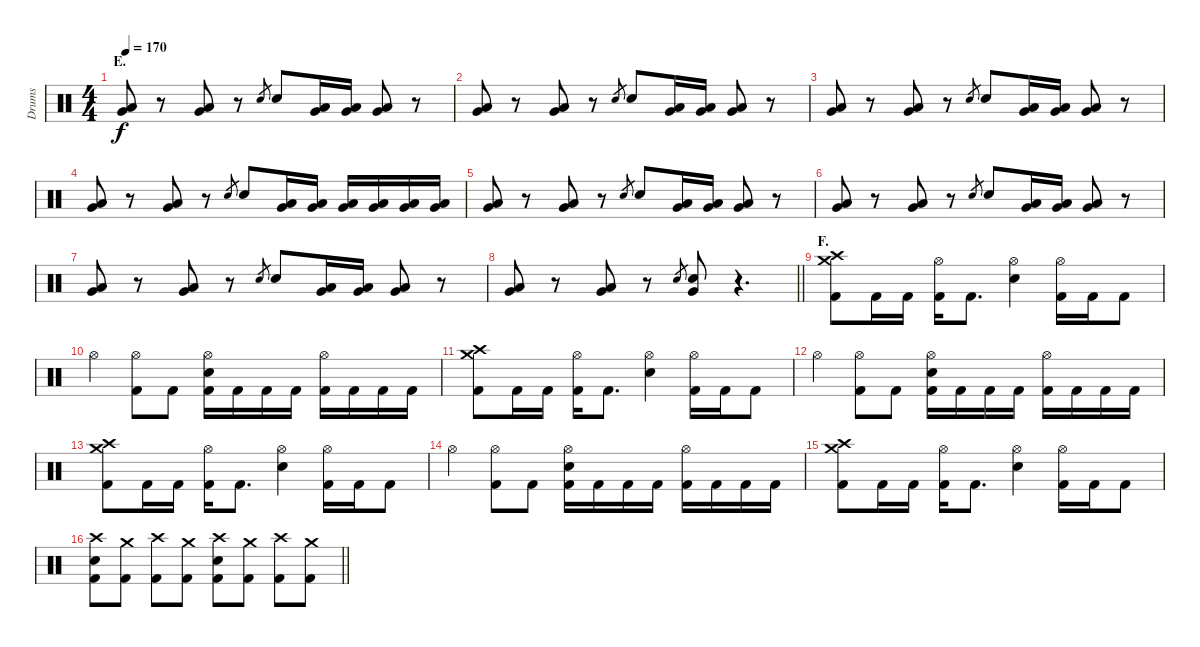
\track ("Drums" "Drums") {instrument percussion}
\staff {score}
\articulation defaults
\ts (4 4)
\section ("" "E.")
\tempo 170
\clef neutral
\ks c
("Very Low Tom (hit)" "Low Floor Tom (hit)").8{bu 120 dy f} r.8 ("Very Low Tom (hit)" "Low Floor Tom (hit)").8{bu 120} r.8 "Electric Snare (hit)".8{gr} "Electric Snare (hit)".8 ("Low Tom (hit)" "Very Low Tom (hit)").16 ("Low Tom (hit)" "Very Low Tom (hit)").16 ("Very Low Tom (hit)" "Low Floor Tom (hit)").8{bu 120} r.8 |
("Very Low Tom (hit)" "Low Floor Tom (hit)").8{bu 120} r.8 ("Very Low Tom (hit)" "Low Floor Tom (hit)").8{bu 120} r.8 "Electric Snare (hit)".8{gr} "Electric Snare (hit)".8 ("Low Tom (hit)" "Very Low Tom (hit)").16 ("Low Tom (hit)" "Very Low Tom (hit)").16 ("Very Low Tom (hit)" "Low Floor Tom (hit)").8{bu 120} r.8 |
("Very Low Tom (hit)" "Low Floor Tom (hit)").8{bu 120} r.8 ("Very Low Tom (hit)" "Low Floor Tom (hit)").8{bu 120} r.8 "Electric Snare (hit)".8{gr} "Electric Snare (hit)".8 ("Low Tom (hit)" "Very Low Tom (hit)").16 ("Low Tom (hit)" "Very Low Tom (hit)").16 ("Very Low Tom (hit)" "Low Floor Tom (hit)").8{bu 120} r.8 |
("Very Low Tom (hit)" "Low Floor Tom (hit)").8{bu 120} r.8 ("Very Low Tom (hit)" "Low Floor Tom (hit)").8{bu 120} r.8 "Electric Snare (hit)".8{gr} "Electric Snare (hit)".8 ("Low Tom (hit)" "Very Low Tom (hit)").16 ("Low Tom (hit)" "Very Low Tom (hit)").16 ("Low Tom (hit)" "Very Low Tom (hit)").16 ("Low Tom (hit)" "Very Low Tom (hit)").16 ("Low Tom (hit)" "Very Low Tom (hit)").16 ("Low Tom (hit)" "Very Low Tom (hit)").16 |
("Very Low Tom (hit)" "Low Floor Tom (hit)").8{bu 120} r.8 ("Very Low Tom (hit)" "Low Floor Tom (hit)").8{bu 120} r.8 "Electric Snare (hit)".8{gr} "Electric Snare (hit)".8 ("Low Tom (hit)" "Very Low Tom (hit)").16 ("Low Tom (hit)" "Very Low Tom (hit)").16 ("Very Low Tom (hit)" "Low Floor Tom (hit)").8{bu 120} r.8 |
("Very Low Tom (hit)" "Low Floor Tom (hit)").8{bu 120} r.8 ("Very Low Tom (hit)" "Low Floor Tom (hit)").8{bu 120} r.8 "Electric Snare (hit)".8{gr} "Electric Snare (hit)".8 ("Low Tom (hit)" "Very Low Tom (hit)").16 ("Low Tom (hit)" "Very Low Tom (hit)").16 ("Very Low Tom (hit)" "Low Floor Tom (hit)").8{bu 120} r.8 |
("Very Low Tom (hit)" "Low Floor Tom (hit)").8{bu 120} r.8 ("Very Low Tom (hit)" "Low Floor Tom (hit)").8{bu 120} r.8 "Electric Snare (hit)".8{gr} "Electric Snare (hit)".8 ("Low Tom (hit)" "Very Low Tom (hit)").16 ("Low Tom (hit)" "Very Low Tom (hit)").16 ("Very Low Tom (hit)" "Low Floor Tom (hit)").8{bu 120} r.8 |
\barLineRight lightlight
("Very Low Tom (hit)" "Low Floor Tom (hit)").8{bu 120} r.8 ("Very Low Tom (hit)" "Low Floor Tom (hit)").8{bu 120} r.8 "Electric Snare (hit)".8{gr} ("Electric Snare (hit)" "Very Low Tom (hit)").8 r.4{d} |
\section ("" "F.")
("Crash medium (hit)" "Crash high (hit)" "Kick (hit) 2").8 "Kick (hit) 2".16 "Kick (hit) 2".16 ("Hi-Hat (open)" "Kick (hit) 2").16 "Kick (hit) 2".8{d} ("Hi-Hat (open)" "Electric Snare (hit)").4 ("Hi-Hat (open)" "Kick (hit) 2").16 "Kick (hit) 2".16 "Kick (hit) 2".8 |
"Hi-Hat (open)".4 ("Hi-Hat (open)" "Kick (hit) 2").8 "Kick (hit) 2".8 ("Hi-Hat (open)" "Electric Snare (hit)" "Kick (hit) 2").16 "Kick (hit) 2".16 "Kick (hit) 2".16 "Kick (hit) 2".16 ("Hi-Hat (open)" "Kick (hit) 2").16 "Kick (hit) 2".16 "Kick (hit) 2".16 "Kick (hit) 2".16 |
("Crash medium (hit)" "Crash high (hit)" "Kick (hit) 2").8 "Kick (hit) 2".16 "Kick (hit) 2".16 ("Hi-Hat (open)" "Kick (hit) 2").16 "Kick (hit) 2".8{d} ("Hi-Hat (open)" "Electric Snare (hit)").4 ("Hi-Hat (open)" "Kick (hit) 2").16 "Kick (hit) 2".16 "Kick (hit) 2".8 |
"Hi-Hat (open)".4 ("Hi-Hat (open)" "Kick (hit) 2").8 "Kick (hit) 2".8 ("Hi-Hat (open)" "Electric Snare (hit)" "Kick (hit) 2").16 "Kick (hit) 2".16 "Kick (hit) 2".16 "Kick (hit) 2".16 ("Hi-Hat (open)" "Kick (hit) 2").16 "Kick (hit) 2".16 "Kick (hit) 2".16 "Kick (hit) 2".16 |
("Crash medium (hit)" "Crash high (hit)" "Kick (hit) 2").8 "Kick (hit) 2".16 "Kick (hit) 2".16 ("Hi-Hat (open)" "Kick (hit) 2").16 "Kick (hit) 2".8{d} ("Hi-Hat (open)" "Electric Snare (hit)").4 ("Hi-Hat (open)" "Kick (hit) 2").16 "Kick (hit) 2".16 "Kick (hit) 2".8 |
"Hi-Hat (open)".4 ("Hi-Hat (open)" "Kick (hit) 2").8 "Kick (hit) 2".8 ("Hi-Hat (open)" "Electric Snare (hit)" "Kick (hit) 2").16 "Kick (hit) 2".16 "Kick (hit) 2".16 "Kick (hit) 2".16 ("Hi-Hat (open)" "Kick (hit) 2").16 "Kick (hit) 2".16 "Kick (hit) 2".16 "Kick (hit) 2".16 |
("Crash medium (hit)" "Crash high (hit)" "Kick (hit) 2").8 "Kick (hit) 2".16 "Kick (hit) 2".16 ("Hi-Hat (open)" "Kick (hit) 2").16 "Kick (hit) 2".8{d} ("Hi-Hat (open)" "Electric Snare (hit)").4 ("Hi-Hat (open)" "Kick (hit) 2").16 "Kick (hit) 2".16 "Kick (hit) 2".8 |
\barLineRight lightlight
("Crash high (hit)" "Electric Snare (hit)" "Kick (hit) 2").8 ("Crash medium (hit)" "Kick (hit) 2").8 ("Crash high (hit)" "Kick (hit) 2").8 ("Crash medium (hit)" "Kick (hit) 2").8 ("Crash high (hit)" "Electric Snare (hit)" "Kick (hit) 2").8 ("Crash medium (hit)" "Kick (hit) 2").8 ("Crash high (hit)" "Kick (hit) 2").8 ("Crash medium (hit)" "Kick (hit) 2").8
